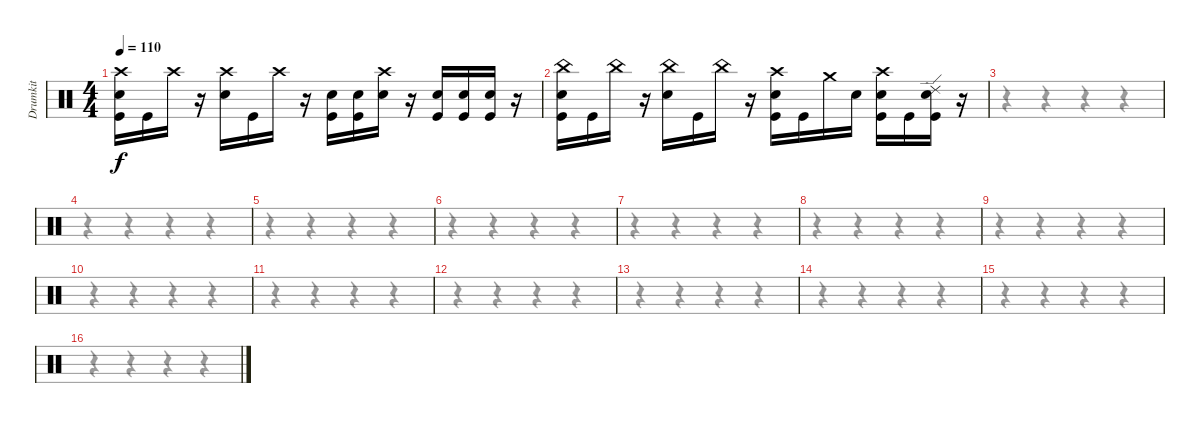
\track ("Drumkit" "Drumkit") {instrument percussion}
\staff {score}
\articulation defaults
\voice
\ts (4 4)
\tempo 110
\clef neutral
\ks c
("Crash high (hit)" "Snare (hit) 2" "Kick (hit)").16{dy f} "Kick (hit)".16 "Crash high (hit)".16 r.16 ("Crash high (hit)" "Snare (hit) 2").16 "Kick (hit)".16 "Crash high (hit)".16 r.16 ("Snare (hit) 2" "Kick (hit)").16 ("Snare (hit) 2" "Kick (hit)").16 ("Crash high (hit)" "Snare (hit) 2").16 r.16 ("Snare (hit) 2" "Kick (hit)").16 ("Snare (hit) 2" "Kick (hit)").16 ("Snare (hit) 2" "Kick (hit)").16 r.16 |
("China (hit)" "Snare (hit) 2" "Kick (hit)").16 "Kick (hit)".16 "China (hit)".16 r.16 ("China (hit)" "Snare (hit) 2").16 "Kick (hit)".16 "China (hit)".16 r.16 ("Crash high (hit)" "Snare (hit) 2" "Kick (hit)").16 "Kick (hit)".16 "Crash medium (hit)".16 "Snare (hit) 2".16 ("Crash high (hit)" "Snare (hit) 2" "Kick (hit)").16 "Kick (hit)".16 ("Ride (edge) 2" "Snare (hit) 2" "Kick (hit)").16 r.16 |
|
|
|
|
|
|
|
|
|
|
|
|
|
\voice
\clef neutral
\ottava regular
\simile none
\ks c
|
|
r.4 r.4 r.4 r.4 |
r.4 r.4 r.4 r.4 |
r.4 r.4 r.4 r.4 |
r.4 r.4 r.4 r.4 |
r.4 r.4 r.4 r.4 |
r.4 r.4 r.4 r.4 |
r.4 r.4 r.4 r.4 |
r.4 r.4 r.4 r.4 |
r.4 r.4 r.4 r.4 |
r.4 r.4 r.4 r.4 |
r.4 r.4 r.4 r.4 |
r.4 r.4 r.4 r.4 |
r.4 r.4 r.4 r.4 |
r.4 r.4 r.4 r.4
